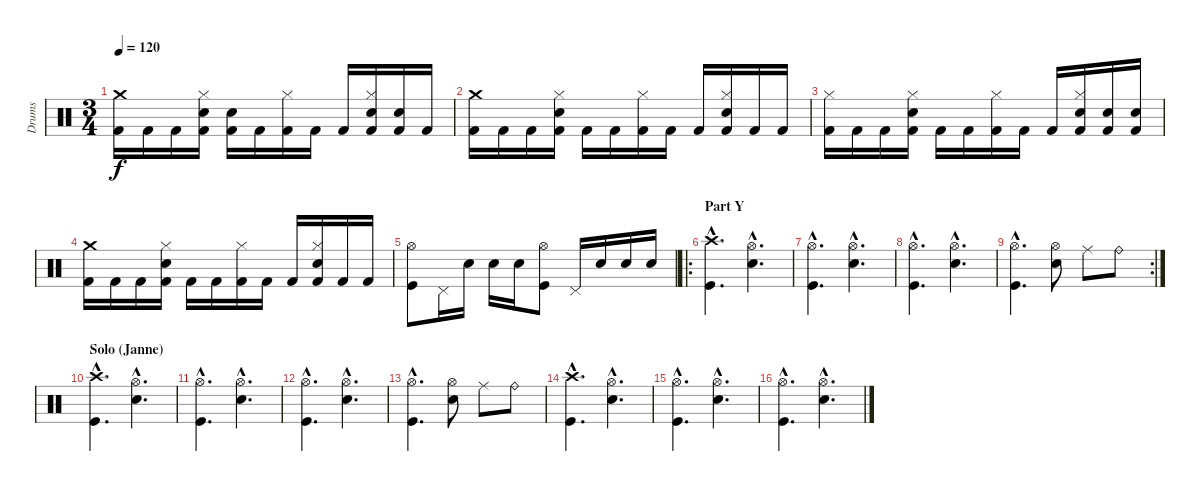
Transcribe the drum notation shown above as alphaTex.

\track ("Drums" "Drums") {instrument percussion}
\staff {score}
\articulation defaults
\ts (3 4)
\tempo 120
\clef neutral
\ks c
("Crash medium (hit)" "Kick (hit) 2").16{dy f} "Kick (hit) 2".16 "Kick (hit) 2".16 ("Hi-Hat (closed)" "Electric Snare (hit)" "Kick (hit) 2").16 ("Electric Snare (hit)" "Kick (hit) 2").16 "Kick (hit) 2".16 ("Hi-Hat (closed)" "Kick (hit) 2").16 "Kick (hit) 2".16 "Kick (hit) 2".16 ("Hi-Hat (closed)" "Electric Snare (hit)" "Kick (hit) 2").16 ("Electric Snare (hit)" "Kick (hit) 2").16 "Kick (hit) 2".16 |
("Crash medium (hit)" "Kick (hit) 2").16 "Kick (hit) 2".16 "Kick (hit) 2".16 ("Hi-Hat (closed)" "Electric Snare (hit)" "Kick (hit) 2").16 "Kick (hit) 2".16 "Kick (hit) 2".16 ("Hi-Hat (closed)" "Kick (hit) 2").16 "Kick (hit) 2".16 "Kick (hit) 2".16 ("Hi-Hat (closed)" "Electric Snare (hit)" "Kick (hit) 2").16 "Kick (hit) 2".16 "Kick (hit) 2".16 |
("Hi-Hat (closed)" "Kick (hit) 2").16 "Kick (hit) 2".16 "Kick (hit) 2".16 ("Hi-Hat (closed)" "Electric Snare (hit)" "Kick (hit) 2").16 "Kick (hit) 2".16 "Kick (hit) 2".16 ("Hi-Hat (closed)" "Kick (hit) 2").16 "Kick (hit) 2".16 "Kick (hit) 2".16 ("Hi-Hat (closed)" "Electric Snare (hit)" "Kick (hit) 2").16 ("Electric Snare (hit)" "Kick (hit) 2").16 ("Electric Snare (hit)" "Kick (hit) 2").16 |
("Crash medium (hit)" "Kick (hit) 2").16 "Kick (hit) 2".16 "Kick (hit) 2".16 ("Hi-Hat (closed)" "Electric Snare (hit)" "Kick (hit) 2").16 "Kick (hit) 2".16 "Kick (hit) 2".16 ("Hi-Hat (closed)" "Kick (hit) 2").16 "Kick (hit) 2".16 "Kick (hit) 2".16 ("Hi-Hat (closed)" "Electric Snare (hit)" "Kick (hit) 2").16 "Kick (hit) 2".16 "Kick (hit) 2".16 |
("Hi-Hat (open)" "Kick (hit)").8 "Pedal Hi-Hat (hit)".16 "Electric Snare (hit)".16 "Electric Snare (hit)".16 "Electric Snare (hit)".16 ("Hi-Hat (open)" "Kick (hit)").8 "Pedal Hi-Hat (hit)".16 "Electric Snare (hit)".16 "Electric Snare (hit)".16 "Electric Snare (hit)".16 |
\ro
\section ("" "Part Y")
("Crash high (hit)"{hac} "Kick (hit)"{hac}).4{d} ("Hi-Hat (open)"{hac} "Electric Snare (hit)"{hac}).4{d} |
("Hi-Hat (open)"{hac} "Kick (hit)"{hac}).4{d} ("Hi-Hat (open)"{hac} "Electric Snare (hit)"{hac}).4{d} |
("Hi-Hat (open)"{hac} "Kick (hit)"{hac}).4{d} ("Hi-Hat (open)"{hac} "Electric Snare (hit)"{hac}).4{d} |
\rc 2
("Hi-Hat (open)"{hac} "Kick (hit)"{hac}).4{d} ("Hi-Hat (open)" "Electric Snare (hit)").8 "Ride (middle)".8 "Ride (bell)".8 |
\section ("" "Solo (Janne)")
("Crash high (hit)"{hac} "Kick (hit)"{hac}).4{d} ("Hi-Hat (open)"{hac} "Electric Snare (hit)"{hac}).4{d} |
("Hi-Hat (open)"{hac} "Kick (hit)"{hac}).4{d} ("Hi-Hat (open)"{hac} "Electric Snare (hit)"{hac}).4{d} |
("Hi-Hat (open)"{hac} "Kick (hit)"{hac}).4{d} ("Hi-Hat (open)"{hac} "Electric Snare (hit)"{hac}).4{d} |
("Hi-Hat (open)"{hac} "Kick (hit)"{hac}).4{d} ("Hi-Hat (open)" "Electric Snare (hit)").8 "Ride (middle)".8 "Ride (bell)".8 |
("Crash high (hit)"{hac} "Kick (hit)"{hac}).4{d} ("Hi-Hat (open)"{hac} "Electric Snare (hit)"{hac}).4{d} |
("Hi-Hat (open)"{hac} "Kick (hit)"{hac}).4{d} ("Hi-Hat (open)"{hac} "Electric Snare (hit)"{hac}).4{d} |
("Hi-Hat (open)"{hac} "Kick (hit)"{hac}).4{d} ("Hi-Hat (open)"{hac} "Electric Snare (hit)"{hac}).4{d}
